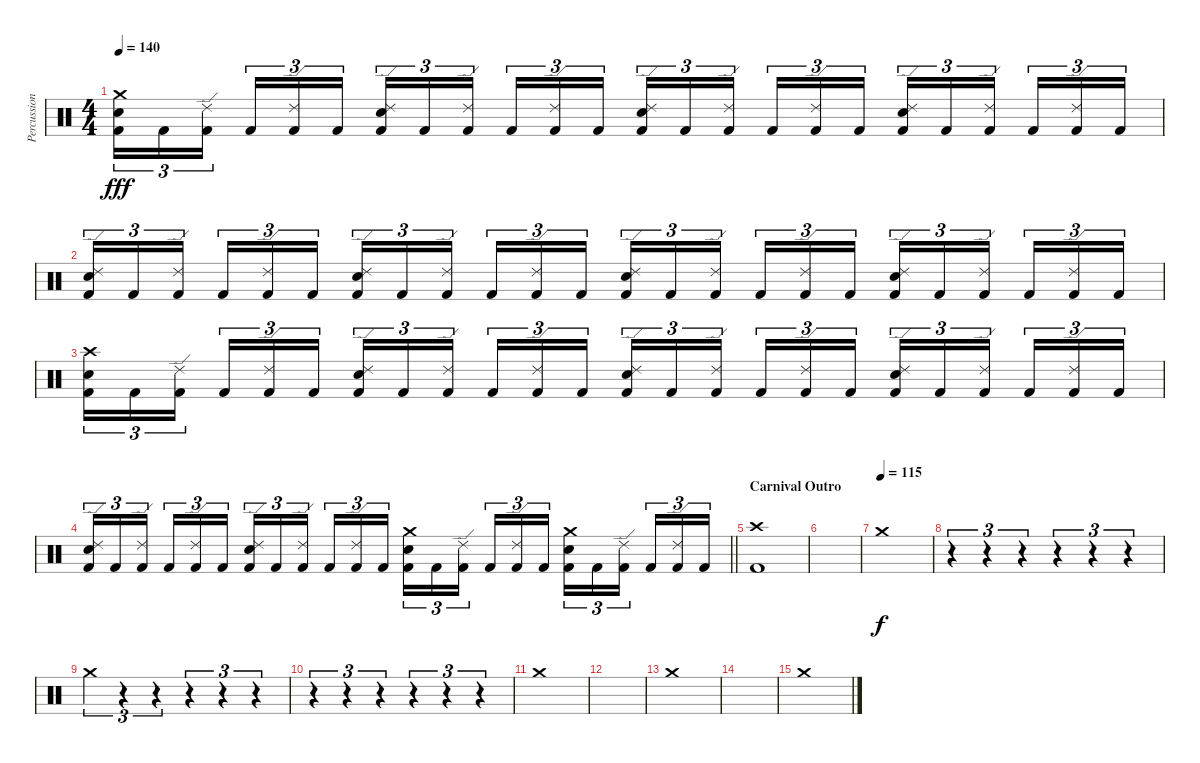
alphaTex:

\track ("Percussions" "Percussion") {instrument percussion}
\staff {score}
\articulation defaults
\ts (4 4)
\tempo 140
\clef neutral
\ks c
("Crash medium (hit)" "Snare (hit) 2" "Kick (hit) 2").16{tu (3 2) dy fff} "Kick (hit) 2".16{tu (3 2)} ("Ride (edge) 2" "Kick (hit) 2").16{tu (3 2) beam splitsecondary} "Kick (hit) 2".16{tu (3 2)} ("Ride (edge) 2" "Kick (hit) 2").16{tu (3 2)} "Kick (hit) 2".16{tu (3 2)} ("Ride (edge) 2" "Snare (hit) 2" "Kick (hit) 2").16{tu (3 2)} "Kick (hit) 2".16{tu (3 2)} ("Ride (edge) 2" "Kick (hit) 2").16{tu (3 2) beam splitsecondary} "Kick (hit) 2".16{tu (3 2)} ("Ride (edge) 2" "Kick (hit) 2").16{tu (3 2)} "Kick (hit) 2".16{tu (3 2)} ("Ride (edge) 2" "Snare (hit) 2" "Kick (hit) 2").16{tu (3 2)} "Kick (hit) 2".16{tu (3 2)} ("Ride (edge) 2" "Kick (hit) 2").16{tu (3 2) beam splitsecondary} "Kick (hit) 2".16{tu (3 2)} ("Ride (edge) 2" "Kick (hit) 2").16{tu (3 2)} "Kick (hit) 2".16{tu (3 2)} ("Ride (edge) 2" "Snare (hit) 2" "Kick (hit) 2").16{tu (3 2)} "Kick (hit) 2".16{tu (3 2)} ("Ride (edge) 2" "Kick (hit) 2").16{tu (3 2) beam splitsecondary} "Kick (hit) 2".16{tu (3 2)} ("Ride (edge) 2" "Kick (hit) 2").16{tu (3 2)} "Kick (hit) 2".16{tu (3 2)} |
("Ride (edge) 2" "Snare (hit) 2" "Kick (hit) 2").16{tu (3 2)} "Kick (hit) 2".16{tu (3 2)} ("Ride (edge) 2" "Kick (hit) 2").16{tu (3 2) beam splitsecondary} "Kick (hit) 2".16{tu (3 2)} ("Ride (edge) 2" "Kick (hit) 2").16{tu (3 2)} "Kick (hit) 2".16{tu (3 2)} ("Ride (edge) 2" "Snare (hit) 2" "Kick (hit) 2").16{tu (3 2)} "Kick (hit) 2".16{tu (3 2)} ("Ride (edge) 2" "Kick (hit) 2").16{tu (3 2) beam splitsecondary} "Kick (hit) 2".16{tu (3 2)} ("Ride (edge) 2" "Kick (hit) 2").16{tu (3 2)} "Kick (hit) 2".16{tu (3 2)} ("Ride (edge) 2" "Snare (hit) 2" "Kick (hit) 2").16{tu (3 2)} "Kick (hit) 2".16{tu (3 2)} ("Ride (edge) 2" "Kick (hit) 2").16{tu (3 2) beam splitsecondary} "Kick (hit) 2".16{tu (3 2)} ("Ride (edge) 2" "Kick (hit) 2").16{tu (3 2)} "Kick (hit) 2".16{tu (3 2)} ("Ride (edge) 2" "Snare (hit) 2" "Kick (hit) 2").16{tu (3 2)} "Kick (hit) 2".16{tu (3 2)} ("Ride (edge) 2" "Kick (hit) 2").16{tu (3 2) beam splitsecondary} "Kick (hit) 2".16{tu (3 2)} ("Ride (edge) 2" "Kick (hit) 2").16{tu (3 2)} "Kick (hit) 2".16{tu (3 2)} |
("Crash high (hit)" "Snare (hit) 2" "Kick (hit) 2").16{tu (3 2)} "Kick (hit) 2".16{tu (3 2)} ("Ride (edge) 2" "Kick (hit) 2").16{tu (3 2) beam splitsecondary} "Kick (hit) 2".16{tu (3 2)} ("Ride (edge) 2" "Kick (hit) 2").16{tu (3 2)} "Kick (hit) 2".16{tu (3 2)} ("Ride (edge) 2" "Snare (hit) 2" "Kick (hit) 2").16{tu (3 2)} "Kick (hit) 2".16{tu (3 2)} ("Ride (edge) 2" "Kick (hit) 2").16{tu (3 2) beam splitsecondary} "Kick (hit) 2".16{tu (3 2)} ("Ride (edge) 2" "Kick (hit) 2").16{tu (3 2)} "Kick (hit) 2".16{tu (3 2)} ("Ride (edge) 2" "Snare (hit) 2" "Kick (hit) 2").16{tu (3 2)} "Kick (hit) 2".16{tu (3 2)} ("Ride (edge) 2" "Kick (hit) 2").16{tu (3 2) beam splitsecondary} "Kick (hit) 2".16{tu (3 2)} ("Ride (edge) 2" "Kick (hit) 2").16{tu (3 2)} "Kick (hit) 2".16{tu (3 2)} ("Ride (edge) 2" "Snare (hit) 2" "Kick (hit) 2").16{tu (3 2)} "Kick (hit) 2".16{tu (3 2)} ("Ride (edge) 2" "Kick (hit) 2").16{tu (3 2) beam splitsecondary} "Kick (hit) 2".16{tu (3 2)} ("Ride (edge) 2" "Kick (hit) 2").16{tu (3 2)} "Kick (hit) 2".16{tu (3 2)} |
\barLineRight lightlight
("Ride (edge) 2" "Snare (hit) 2" "Kick (hit) 2").16{tu (3 2)} "Kick (hit) 2".16{tu (3 2)} ("Ride (edge) 2" "Kick (hit) 2").16{tu (3 2) beam splitsecondary} "Kick (hit) 2".16{tu (3 2)} ("Ride (edge) 2" "Kick (hit) 2").16{tu (3 2)} "Kick (hit) 2".16{tu (3 2)} ("Ride (edge) 2" "Snare (hit) 2" "Kick (hit) 2").16{tu (3 2)} "Kick (hit) 2".16{tu (3 2)} ("Ride (edge) 2" "Kick (hit) 2").16{tu (3 2) beam splitsecondary} "Kick (hit) 2".16{tu (3 2)} ("Ride (edge) 2" "Kick (hit) 2").16{tu (3 2)} "Kick (hit) 2".16{tu (3 2)} ("Crash medium (hit)" "Snare (hit) 2" "Kick (hit) 2").16{tu (3 2)} "Kick (hit) 2".16{tu (3 2)} ("Ride (edge) 2" "Kick (hit) 2").16{tu (3 2) beam splitsecondary} "Kick (hit) 2".16{tu (3 2)} ("Ride (edge) 2" "Kick (hit) 2").16{tu (3 2)} "Kick (hit) 2".16{tu (3 2)} ("Crash medium (hit)" "Snare (hit) 2" "Kick (hit) 2").16{tu (3 2)} "Kick (hit) 2".16{tu (3 2)} ("Ride (edge) 2" "Kick (hit) 2").16{tu (3 2) beam splitsecondary} "Kick (hit) 2".16{tu (3 2)} ("Ride (edge) 2" "Kick (hit) 2").16{tu (3 2)} "Kick (hit) 2".16{tu (3 2)} |
\section ("" "Carnival Outro")
("Crash high (hit)" "Kick (hit) 2").1 |
|
\tempo (115)
"Crash medium (hit)".1{dy f} |
r.4{tu (3 2)} r.4{tu (3 2)} r.4{tu (3 2)} r.4{tu (3 2)} r.4{tu (3 2)} r.4{tu (3 2)} |
"Crash medium (hit)".4{tu (3 2)} r.4{tu (3 2)} r.4{tu (3 2)} r.4{tu (3 2)} r.4{tu (3 2)} r.4{tu (3 2)} |
r.4{tu (3 2)} r.4{tu (3 2)} r.4{tu (3 2)} r.4{tu (3 2)} r.4{tu (3 2)} r.4{tu (3 2)} |
"Crash medium (hit)".1 |
|
"Crash medium (hit)".1 |
|
"Crash medium (hit)".1
